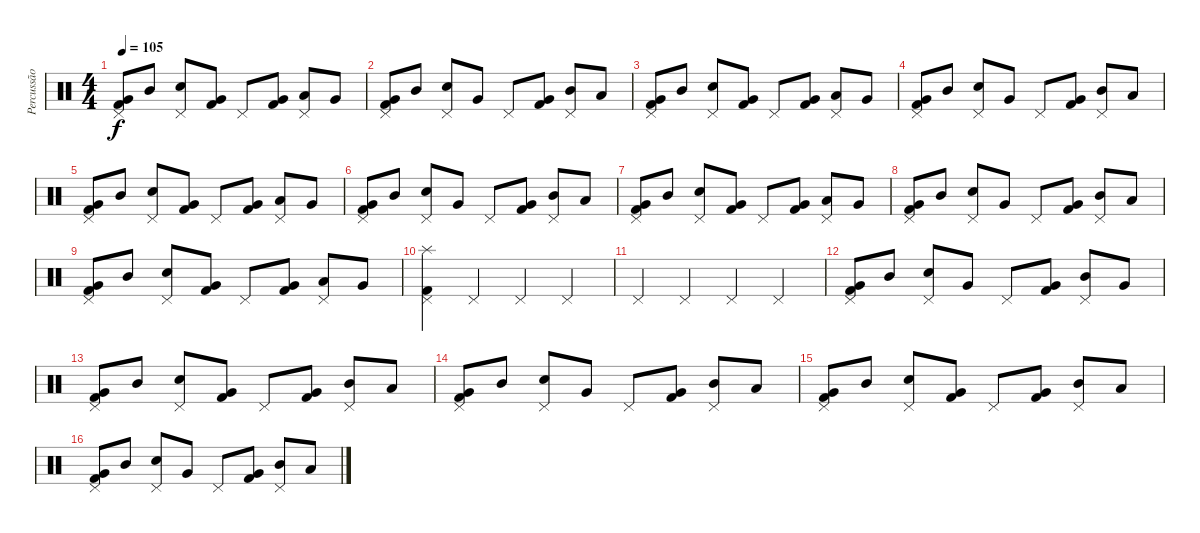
\track ("Percussão" "Percussão") {instrument percussion}
\staff {score}
\articulation defaults
\ts (4 4)
\tempo 105
\clef neutral
\ks c
("Pedal Hi-Hat (hit)" "Very Low Tom (hit)" "Kick (hit) 2").8{dy f} "Mid Tom (hit)".8 ("Pedal Hi-Hat (hit)" "Snare (hit) 2").8 ("Very Low Tom (hit)" "Kick (hit) 2").8 "Pedal Hi-Hat (hit)".8 ("Very Low Tom (hit)" "Kick (hit) 2").8 ("Pedal Hi-Hat (hit)" "Low Tom (hit)").8 "Very Low Tom (hit)".8 |
("Pedal Hi-Hat (hit)" "Very Low Tom (hit)" "Kick (hit) 2").8 "Mid Tom (hit)".8 ("Pedal Hi-Hat (hit)" "Snare (hit) 2").8 "Very Low Tom (hit)".8 "Pedal Hi-Hat (hit)".8 ("Very Low Tom (hit)" "Kick (hit) 2").8 ("Pedal Hi-Hat (hit)" "Mid Tom (hit)").8 "Low Tom (hit)".8 |
("Pedal Hi-Hat (hit)" "Very Low Tom (hit)" "Kick (hit) 2").8 "Mid Tom (hit)".8 ("Pedal Hi-Hat (hit)" "Snare (hit) 2").8 ("Very Low Tom (hit)" "Kick (hit) 2").8 "Pedal Hi-Hat (hit)".8 ("Very Low Tom (hit)" "Kick (hit) 2").8 ("Pedal Hi-Hat (hit)" "Low Tom (hit)").8 "Very Low Tom (hit)".8 |
("Pedal Hi-Hat (hit)" "Very Low Tom (hit)" "Kick (hit) 2").8 "Mid Tom (hit)".8 ("Pedal Hi-Hat (hit)" "Snare (hit) 2").8 "Very Low Tom (hit)".8 "Pedal Hi-Hat (hit)".8 ("Very Low Tom (hit)" "Kick (hit) 2").8 ("Pedal Hi-Hat (hit)" "Mid Tom (hit)").8 "Low Tom (hit)".8 |
("Pedal Hi-Hat (hit)" "Very Low Tom (hit)" "Kick (hit) 2").8 "Mid Tom (hit)".8 ("Pedal Hi-Hat (hit)" "Snare (hit) 2").8 ("Very Low Tom (hit)" "Kick (hit) 2").8 "Pedal Hi-Hat (hit)".8 ("Very Low Tom (hit)" "Kick (hit) 2").8 ("Pedal Hi-Hat (hit)" "Low Tom (hit)").8 "Very Low Tom (hit)".8 |
("Pedal Hi-Hat (hit)" "Very Low Tom (hit)" "Kick (hit) 2").8 "Mid Tom (hit)".8 ("Pedal Hi-Hat (hit)" "Snare (hit) 2").8 "Very Low Tom (hit)".8 "Pedal Hi-Hat (hit)".8 ("Very Low Tom (hit)" "Kick (hit) 2").8 ("Pedal Hi-Hat (hit)" "Mid Tom (hit)").8 "Low Tom (hit)".8 |
("Pedal Hi-Hat (hit)" "Very Low Tom (hit)" "Kick (hit) 2").8 "Mid Tom (hit)".8 ("Pedal Hi-Hat (hit)" "Snare (hit) 2").8 ("Very Low Tom (hit)" "Kick (hit) 2").8 "Pedal Hi-Hat (hit)".8 ("Very Low Tom (hit)" "Kick (hit) 2").8 ("Pedal Hi-Hat (hit)" "Low Tom (hit)").8 "Very Low Tom (hit)".8 |
("Pedal Hi-Hat (hit)" "Very Low Tom (hit)" "Kick (hit) 2").8 "Mid Tom (hit)".8 ("Pedal Hi-Hat (hit)" "Snare (hit) 2").8 "Very Low Tom (hit)".8 "Pedal Hi-Hat (hit)".8 ("Very Low Tom (hit)" "Kick (hit) 2").8 ("Pedal Hi-Hat (hit)" "Mid Tom (hit)").8 "Low Tom (hit)".8 |
("Pedal Hi-Hat (hit)" "Very Low Tom (hit)" "Kick (hit) 2").8 "Mid Tom (hit)".8 ("Pedal Hi-Hat (hit)" "Snare (hit) 2").8 ("Very Low Tom (hit)" "Kick (hit) 2").8 "Pedal Hi-Hat (hit)".8 ("Very Low Tom (hit)" "Kick (hit) 2").8 ("Pedal Hi-Hat (hit)" "Low Tom (hit)").8 "Very Low Tom (hit)".8 |
("Splash (hit)" "Pedal Hi-Hat (hit)" "Kick (hit) 2").4 "Pedal Hi-Hat (hit)".4 "Pedal Hi-Hat (hit)".4 "Pedal Hi-Hat (hit)".4 |
"Pedal Hi-Hat (hit)".4 "Pedal Hi-Hat (hit)".4 "Pedal Hi-Hat (hit)".4 "Pedal Hi-Hat (hit)".4 |
("Pedal Hi-Hat (hit)" "Very Low Tom (hit)" "Kick (hit) 2").8 "Mid Tom (hit)".8 ("Pedal Hi-Hat (hit)" "Snare (hit) 2").8 "Very Low Tom (hit)".8 "Pedal Hi-Hat (hit)".8 ("Very Low Tom (hit)" "Kick (hit) 2").8 ("Pedal Hi-Hat (hit)" "Mid Tom (hit)").8 "Very Low Tom (hit)".8 |
("Pedal Hi-Hat (hit)" "Very Low Tom (hit)" "Kick (hit) 2").8 "Mid Tom (hit)".8 ("Pedal Hi-Hat (hit)" "Snare (hit) 2").8 ("Very Low Tom (hit)" "Kick (hit) 2").8 "Pedal Hi-Hat (hit)".8 ("Very Low Tom (hit)" "Kick (hit) 2").8 ("Pedal Hi-Hat (hit)" "Mid Tom (hit)").8 "Low Tom (hit)".8 |
("Pedal Hi-Hat (hit)" "Very Low Tom (hit)" "Kick (hit) 2").8 "Mid Tom (hit)".8 ("Pedal Hi-Hat (hit)" "Snare (hit) 2").8 "Very Low Tom (hit)".8 "Pedal Hi-Hat (hit)".8 ("Very Low Tom (hit)" "Kick (hit) 2").8 ("Pedal Hi-Hat (hit)" "Mid Tom (hit)").8 "Low Tom (hit)".8 |
("Pedal Hi-Hat (hit)" "Very Low Tom (hit)" "Kick (hit) 2").8 "Mid Tom (hit)".8 ("Pedal Hi-Hat (hit)" "Snare (hit) 2").8 ("Very Low Tom (hit)" "Kick (hit) 2").8 "Pedal Hi-Hat (hit)".8 ("Very Low Tom (hit)" "Kick (hit) 2").8 ("Pedal Hi-Hat (hit)" "Mid Tom (hit)").8 "Low Tom (hit)".8 |
("Pedal Hi-Hat (hit)" "Very Low Tom (hit)" "Kick (hit) 2").8 "Mid Tom (hit)".8 ("Pedal Hi-Hat (hit)" "Snare (hit) 2").8 "Very Low Tom (hit)".8 "Pedal Hi-Hat (hit)".8 ("Very Low Tom (hit)" "Kick (hit) 2").8 ("Pedal Hi-Hat (hit)" "Mid Tom (hit)").8 "Low Tom (hit)".8
